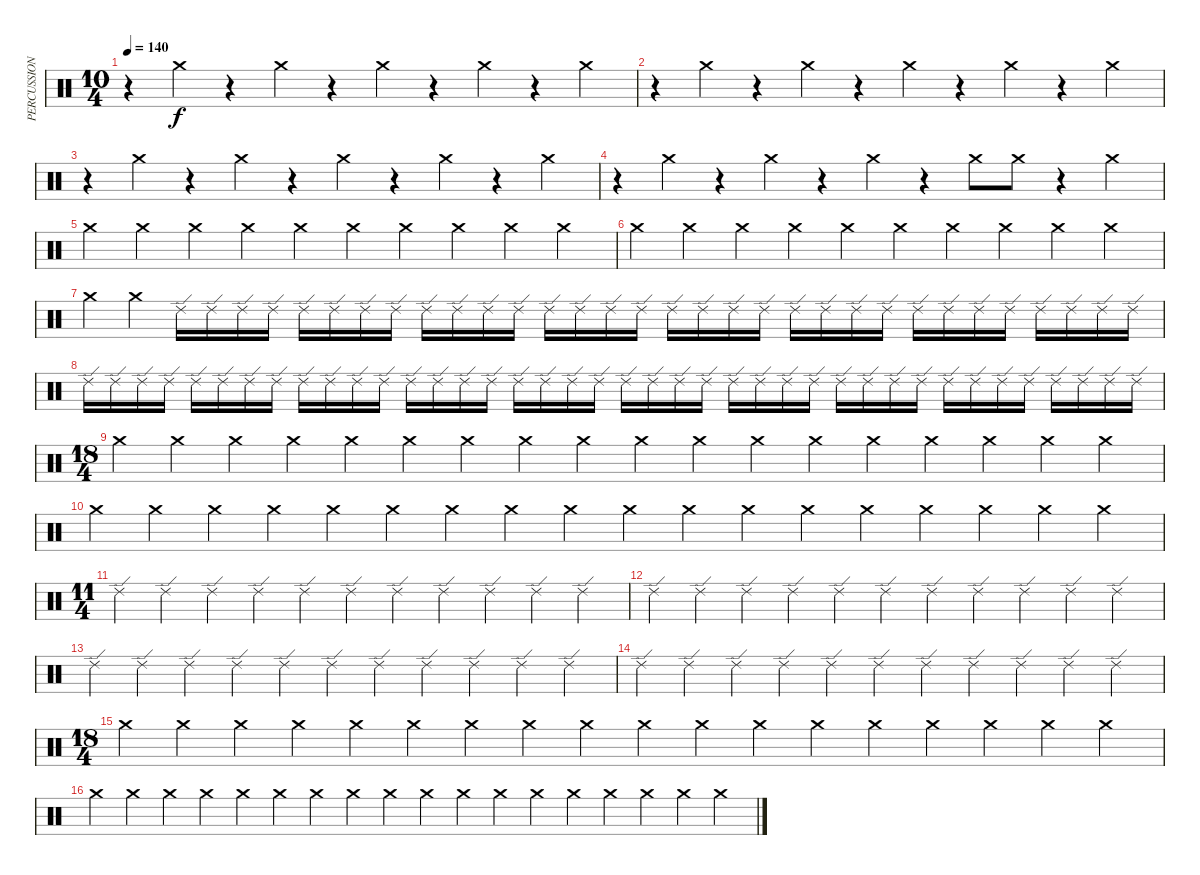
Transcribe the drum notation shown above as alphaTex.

\track ("PERCUSSION" "PERCUSSION") {instrument percussion}
\staff {score}
\articulation defaults
\ts (10 4)
\tempo 140
\clef neutral
\ks c
r.4{dy f} "Crash medium (hit)".4 r.4 "Crash medium (hit)".4 r.4 "Crash medium (hit)".4 r.4 "Crash medium (hit)".4 r.4 "Crash medium (hit)".4 |
r.4 "Crash medium (hit)".4 r.4 "Crash medium (hit)".4 r.4 "Crash medium (hit)".4 r.4 "Crash medium (hit)".4 r.4 "Crash medium (hit)".4 |
r.4 "Crash medium (hit)".4 r.4 "Crash medium (hit)".4 r.4 "Crash medium (hit)".4 r.4 "Crash medium (hit)".4 r.4 "Crash medium (hit)".4 |
r.4 "Crash medium (hit)".4 r.4 "Crash medium (hit)".4 r.4 "Crash medium (hit)".4 r.4 "Crash medium (hit)".8 "Crash medium (hit)".8 r.4 "Crash medium (hit)".4 |
"Crash medium (hit)".4 "Crash medium (hit)".4 "Crash medium (hit)".4 "Crash medium (hit)".4 "Crash medium (hit)".4 "Crash medium (hit)".4 "Crash medium (hit)".4 "Crash medium (hit)".4 "Crash medium (hit)".4 "Crash medium (hit)".4 |
"Crash medium (hit)".4 "Crash medium (hit)".4 "Crash medium (hit)".4 "Crash medium (hit)".4 "Crash medium (hit)".4 "Crash medium (hit)".4 "Crash medium (hit)".4 "Crash medium (hit)".4 "Crash medium (hit)".4 "Crash medium (hit)".4 |
"Crash medium (hit)".4 "Crash medium (hit)".4 "Ride (edge) 2".16 "Ride (edge) 2".16 "Ride (edge) 2".16 "Ride (edge) 2".16 "Ride (edge) 2".16 "Ride (edge) 2".16 "Ride (edge) 2".16 "Ride (edge) 2".16 "Ride (edge) 2".16 "Ride (edge) 2".16 "Ride (edge) 2".16 "Ride (edge) 2".16 "Ride (edge) 2".16 "Ride (edge) 2".16 "Ride (edge) 2".16 "Ride (edge) 2".16 "Ride (edge) 2".16 "Ride (edge) 2".16 "Ride (edge) 2".16 "Ride (edge) 2".16 "Ride (edge) 2".16 "Ride (edge) 2".16 "Ride (edge) 2".16 "Ride (edge) 2".16 "Ride (edge) 2".16 "Ride (edge) 2".16 "Ride (edge) 2".16 "Ride (edge) 2".16 "Ride (edge) 2".16 "Ride (edge) 2".16 "Ride (edge) 2".16 "Ride (edge) 2".16 |
"Ride (edge) 2".16 "Ride (edge) 2".16 "Ride (edge) 2".16 "Ride (edge) 2".16 "Ride (edge) 2".16 "Ride (edge) 2".16 "Ride (edge) 2".16 "Ride (edge) 2".16 "Ride (edge) 2".16 "Ride (edge) 2".16 "Ride (edge) 2".16 "Ride (edge) 2".16 "Ride (edge) 2".16 "Ride (edge) 2".16 "Ride (edge) 2".16 "Ride (edge) 2".16 "Ride (edge) 2".16 "Ride (edge) 2".16 "Ride (edge) 2".16 "Ride (edge) 2".16 "Ride (edge) 2".16 "Ride (edge) 2".16 "Ride (edge) 2".16 "Ride (edge) 2".16 "Ride (edge) 2".16 "Ride (edge) 2".16 "Ride (edge) 2".16 "Ride (edge) 2".16 "Ride (edge) 2".16 "Ride (edge) 2".16 "Ride (edge) 2".16 "Ride (edge) 2".16 "Ride (edge) 2".16 "Ride (edge) 2".16 "Ride (edge) 2".16 "Ride (edge) 2".16 "Ride (edge) 2".16 "Ride (edge) 2".16 "Ride (edge) 2".16 "Ride (edge) 2".16 |
\ts (18 4)
"Crash medium (hit)".4 "Crash medium (hit)".4 "Crash medium (hit)".4 "Crash medium (hit)".4 "Crash medium (hit)".4 "Crash medium (hit)".4 "Crash medium (hit)".4 "Crash medium (hit)".4 "Crash medium (hit)".4 "Crash medium (hit)".4 "Crash medium (hit)".4 "Crash medium (hit)".4 "Crash medium (hit)".4 "Crash medium (hit)".4 "Crash medium (hit)".4 "Crash medium (hit)".4 "Crash medium (hit)".4 "Crash medium (hit)".4 |
"Crash medium (hit)".4 "Crash medium (hit)".4 "Crash medium (hit)".4 "Crash medium (hit)".4 "Crash medium (hit)".4 "Crash medium (hit)".4 "Crash medium (hit)".4 "Crash medium (hit)".4 "Crash medium (hit)".4 "Crash medium (hit)".4 "Crash medium (hit)".4 "Crash medium (hit)".4 "Crash medium (hit)".4 "Crash medium (hit)".4 "Crash medium (hit)".4 "Crash medium (hit)".4 "Crash medium (hit)".4 "Crash medium (hit)".4 |
\ts (11 4)
"Ride (edge) 2".4 "Ride (edge) 2".4 "Ride (edge) 2".4 "Ride (edge) 2".4 "Ride (edge) 2".4 "Ride (edge) 2".4 "Ride (edge) 2".4 "Ride (edge) 2".4 "Ride (edge) 2".4 "Ride (edge) 2".4 "Ride (edge) 2".4 |
"Ride (edge) 2".4 "Ride (edge) 2".4 "Ride (edge) 2".4 "Ride (edge) 2".4 "Ride (edge) 2".4 "Ride (edge) 2".4 "Ride (edge) 2".4 "Ride (edge) 2".4 "Ride (edge) 2".4 "Ride (edge) 2".4 "Ride (edge) 2".4 |
"Ride (edge) 2".4 "Ride (edge) 2".4 "Ride (edge) 2".4 "Ride (edge) 2".4 "Ride (edge) 2".4 "Ride (edge) 2".4 "Ride (edge) 2".4 "Ride (edge) 2".4 "Ride (edge) 2".4 "Ride (edge) 2".4 "Ride (edge) 2".4 |
"Ride (edge) 2".4 "Ride (edge) 2".4 "Ride (edge) 2".4 "Ride (edge) 2".4 "Ride (edge) 2".4 "Ride (edge) 2".4 "Ride (edge) 2".4 "Ride (edge) 2".4 "Ride (edge) 2".4 "Ride (edge) 2".4 "Ride (edge) 2".4 |
\ts (18 4)
"Crash medium (hit)".4 "Crash medium (hit)".4 "Crash medium (hit)".4 "Crash medium (hit)".4 "Crash medium (hit)".4 "Crash medium (hit)".4 "Crash medium (hit)".4 "Crash medium (hit)".4 "Crash medium (hit)".4 "Crash medium (hit)".4 "Crash medium (hit)".4 "Crash medium (hit)".4 "Crash medium (hit)".4 "Crash medium (hit)".4 "Crash medium (hit)".4 "Crash medium (hit)".4 "Crash medium (hit)".4 "Crash medium (hit)".4 |
"Crash medium (hit)".4 "Crash medium (hit)".4 "Crash medium (hit)".4 "Crash medium (hit)".4 "Crash medium (hit)".4 "Crash medium (hit)".4 "Crash medium (hit)".4 "Crash medium (hit)".4 "Crash medium (hit)".4 "Crash medium (hit)".4 "Crash medium (hit)".4 "Crash medium (hit)".4 "Crash medium (hit)".4 "Crash medium (hit)".4 "Crash medium (hit)".4 "Crash medium (hit)".4 "Crash medium (hit)".4 "Crash medium (hit)".4
